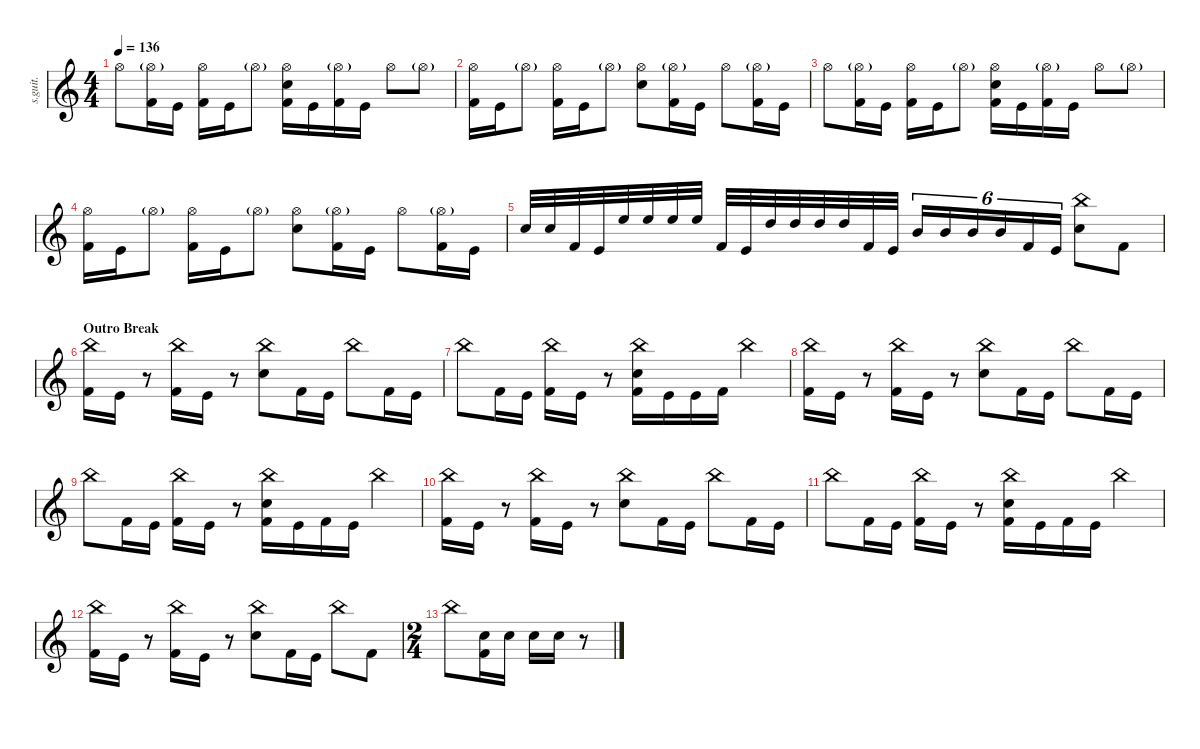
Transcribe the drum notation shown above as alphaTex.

\defaultSystemsLayout 4
\hideDynamics
\bracketExtendMode nobrackets
\track ("Joey Jordison" "s.guit.") {instrument percussion}
\staff {score}
\articulation defaults
\ts (4 4)
\tempo 136
\clef g2
\ks c "Hi-Hat (open)".8{lyrics (0 "") lyrics (1 "") lyrics (2 "") lyrics (3 "") lyrics (4 "") dy fff}
("Kick (hit) 2" "Hi-Hat (open)"{g}).16{lyrics (0 "") lyrics (1 "") lyrics (2 "") lyrics (3 "") lyrics (4 "")} "Kick (hit)".16{lyrics (0 "") lyrics (1 "") lyrics (2 "") lyrics (3 "") lyrics (4 "")} ("Kick (hit) 2" "Hi-Hat (open)").16{lyrics (0 "") lyrics (1 "") lyrics (2 "") lyrics (3 "") lyrics (4 "")} "Kick (hit)".16{lyrics (0 "") lyrics (1 "") lyrics (2 "") lyrics (3 "") lyrics (4 "")} "Hi-Hat (open)"{g}.8{lyrics (0 "") lyrics (1 "") lyrics (2 "") lyrics (3 "") lyrics (4 "")} ("Snare (hit) 2" "Hi-Hat (open)" "Kick (hit) 2").16{lyrics (0 "") lyrics (1 "") lyrics (2 "") lyrics (3 "") lyrics (4 "")} "Kick (hit)".16{lyrics (0 "") lyrics (1 "") lyrics (2 "") lyrics (3 "") lyrics (4 "")} ("Kick (hit) 2" "Hi-Hat (open)"{g}).16{lyrics (0 "") lyrics (1 "") lyrics (2 "") lyrics (3 "") lyrics (4 "")} "Kick (hit)".16{lyrics (0 "") lyrics (1 "") lyrics (2 "") lyrics (3 "") lyrics (4 "")} "Hi-Hat (open)".8{lyrics (0 "") lyrics (1 "") lyrics (2 "") lyrics (3 "") lyrics (4 "")} "Hi-Hat (open)"{g}.8{lyrics (0 "") lyrics (1 "") lyrics (2 "") lyrics (3 "") lyrics (4 "")} |
("Kick (hit) 2" "Hi-Hat (open)").16{lyrics (0 "") lyrics (1 "") lyrics (2 "") lyrics (3 "") lyrics (4 "")} "Kick (hit)".16{lyrics (0 "") lyrics (1 "") lyrics (2 "") lyrics (3 "") lyrics (4 "")} "Hi-Hat (open)"{g}.8{lyrics (0 "") lyrics (1 "") lyrics (2 "") lyrics (3 "") lyrics (4 "")} ("Kick (hit) 2" "Hi-Hat (open)").16{lyrics (0 "") lyrics (1 "") lyrics (2 "") lyrics (3 "") lyrics (4 "")} "Kick (hit)".16{lyrics (0 "") lyrics (1 "") lyrics (2 "") lyrics (3 "") lyrics (4 "")} "Hi-Hat (open)"{g}.8{lyrics (0 "") lyrics (1 "") lyrics (2 "") lyrics (3 "") lyrics (4 "")} ("Hi-Hat (open)" "Snare (hit) 2").8{lyrics (0 "") lyrics (1 "") lyrics (2 "") lyrics (3 "") lyrics (4 "")} ("Kick (hit) 2" "Hi-Hat (open)"{g}).16{lyrics (0 "") lyrics (1 "") lyrics (2 "") lyrics (3 "") lyrics (4 "")} "Kick (hit)".16{lyrics (0 "") lyrics (1 "") lyrics (2 "") lyrics (3 "") lyrics (4 "")} "Hi-Hat (open)".8{lyrics (0 "") lyrics (1 "") lyrics (2 "") lyrics (3 "") lyrics (4 "")} ("Kick (hit) 2" "Hi-Hat (open)"{g}).16{lyrics (0 "") lyrics (1 "") lyrics (2 "") lyrics (3 "") lyrics (4 "")} "Kick (hit)".16{lyrics (0 "") lyrics (1 "") lyrics (2 "") lyrics (3 "") lyrics (4 "")} |
"Hi-Hat (open)".8{lyrics (0 "") lyrics (1 "") lyrics (2 "") lyrics (3 "") lyrics (4 "")} ("Kick (hit) 2" "Hi-Hat (open)"{g}).16{lyrics (0 "") lyrics (1 "") lyrics (2 "") lyrics (3 "") lyrics (4 "")} "Kick (hit)".16{lyrics (0 "") lyrics (1 "") lyrics (2 "") lyrics (3 "") lyrics (4 "")} ("Kick (hit) 2" "Hi-Hat (open)").16{lyrics (0 "") lyrics (1 "") lyrics (2 "") lyrics (3 "") lyrics (4 "")} "Kick (hit)".16{lyrics (0 "") lyrics (1 "") lyrics (2 "") lyrics (3 "") lyrics (4 "")} "Hi-Hat (open)"{g}.8{lyrics (0 "") lyrics (1 "") lyrics (2 "") lyrics (3 "") lyrics (4 "")} ("Snare (hit) 2" "Hi-Hat (open)" "Kick (hit) 2").16{lyrics (0 "") lyrics (1 "") lyrics (2 "") lyrics (3 "") lyrics (4 "")} "Kick (hit)".16{lyrics (0 "") lyrics (1 "") lyrics (2 "") lyrics (3 "") lyrics (4 "")} ("Kick (hit) 2" "Hi-Hat (open)"{g}).16{lyrics (0 "") lyrics (1 "") lyrics (2 "") lyrics (3 "") lyrics (4 "")} "Kick (hit)".16{lyrics (0 "") lyrics (1 "") lyrics (2 "") lyrics (3 "") lyrics (4 "")} "Hi-Hat (open)".8{lyrics (0 "") lyrics (1 "") lyrics (2 "") lyrics (3 "") lyrics (4 "")} "Hi-Hat (open)"{g}.8{lyrics (0 "") lyrics (1 "") lyrics (2 "") lyrics (3 "") lyrics (4 "")} |
("Kick (hit) 2" "Hi-Hat (open)").16{lyrics (0 "") lyrics (1 "") lyrics (2 "") lyrics (3 "") lyrics (4 "")} "Kick (hit)".16{lyrics (0 "") lyrics (1 "") lyrics (2 "") lyrics (3 "") lyrics (4 "")} "Hi-Hat (open)"{g}.8{lyrics (0 "") lyrics (1 "") lyrics (2 "") lyrics (3 "") lyrics (4 "")} ("Kick (hit) 2" "Hi-Hat (open)").16{lyrics (0 "") lyrics (1 "") lyrics (2 "") lyrics (3 "") lyrics (4 "")} "Kick (hit)".16{lyrics (0 "") lyrics (1 "") lyrics (2 "") lyrics (3 "") lyrics (4 "")} "Hi-Hat (open)"{g}.8{lyrics (0 "") lyrics (1 "") lyrics (2 "") lyrics (3 "") lyrics (4 "")} ("Hi-Hat (open)" "Snare (hit) 2").8{lyrics (0 "") lyrics (1 "") lyrics (2 "") lyrics (3 "") lyrics (4 "")} ("Kick (hit) 2" "Hi-Hat (open)"{g}).16{lyrics (0 "") lyrics (1 "") lyrics (2 "") lyrics (3 "") lyrics (4 "")} "Kick (hit)".16{lyrics (0 "") lyrics (1 "") lyrics (2 "") lyrics (3 "") lyrics (4 "")} "Hi-Hat (open)".8{lyrics (0 "") lyrics (1 "") lyrics (2 "") lyrics (3 "") lyrics (4 "")} ("Kick (hit) 2" "Hi-Hat (open)"{g}).16{lyrics (0 "") lyrics (1 "") lyrics (2 "") lyrics (3 "") lyrics (4 "")} "Kick (hit)".16{lyrics (0 "") lyrics (1 "") lyrics (2 "") lyrics (3 "") lyrics (4 "")} |
"Snare (hit) 2".32{lyrics (0 "") lyrics (1 "") lyrics (2 "") lyrics (3 "") lyrics (4 "")} "Snare (hit) 2".32{lyrics (0 "") lyrics (1 "") lyrics (2 "") lyrics (3 "") lyrics (4 "")} "Kick (hit) 2".32{lyrics (0 "") lyrics (1 "") lyrics (2 "") lyrics (3 "") lyrics (4 "")} "Kick (hit)".32{lyrics (0 "") lyrics (1 "") lyrics (2 "") lyrics (3 "") lyrics (4 "")} "High Floor Tom (hit)".32{lyrics (0 "") lyrics (1 "") lyrics (2 "") lyrics (3 "") lyrics (4 "")} "High Floor Tom (hit)".32{lyrics (0 "") lyrics (1 "") lyrics (2 "") lyrics (3 "") lyrics (4 "")} "High Floor Tom (hit)".32{lyrics (0 "") lyrics (1 "") lyrics (2 "") lyrics (3 "") lyrics (4 "")} "High Floor Tom (hit)".32{lyrics (0 "") lyrics (1 "") lyrics (2 "") lyrics (3 "") lyrics (4 "")} "Kick (hit) 2".32{lyrics (0 "") lyrics (1 "") lyrics (2 "") lyrics (3 "") lyrics (4 "")} "Kick (hit)".32{lyrics (0 "") lyrics (1 "") lyrics (2 "") lyrics (3 "") lyrics (4 "")} "High Tom (hit)".32{lyrics (0 "") lyrics (1 "") lyrics (2 "") lyrics (3 "") lyrics (4 "")} "High Tom (hit)".32{lyrics (0 "") lyrics (1 "") lyrics (2 "") lyrics (3 "") lyrics (4 "")} "High Tom (hit)".32{lyrics (0 "") lyrics (1 "") lyrics (2 "") lyrics (3 "") lyrics (4 "")} "High Tom (hit)".32{lyrics (0 "") lyrics (1 "") lyrics (2 "") lyrics (3 "") lyrics (4 "")} "Kick (hit) 2".32{lyrics (0 "") lyrics (1 "") lyrics (2 "") lyrics (3 "") lyrics (4 "")} "Kick (hit)".32{lyrics (0 "") lyrics (1 "") lyrics (2 "") lyrics (3 "") lyrics (4 "")} "Mid Tom (hit)".16{tu (6 4) lyrics (0 "") lyrics (1 "") lyrics (2 "") lyrics (3 "") lyrics (4 "")} "Mid Tom (hit)".16{tu (6 4) lyrics (0 "") lyrics (1 "") lyrics (2 "") lyrics (3 "") lyrics (4 "")} "Mid Tom (hit)".16{tu (6 4) lyrics (0 "") lyrics (1 "") lyrics (2 "") lyrics (3 "") lyrics (4 "")} "Mid Tom (hit)".16{tu (6 4) lyrics (0 "") lyrics (1 "") lyrics (2 "") lyrics (3 "") lyrics (4 "")} "Kick (hit) 2".16{tu (6 4) lyrics (0 "") lyrics (1 "") lyrics (2 "") lyrics (3 "") lyrics (4 "")} "Kick (hit)".16{tu (6 4) lyrics (0 "") lyrics (1 "") lyrics (2 "") lyrics (3 "") lyrics (4 "")} ("Snare (hit) 2" "China (hit)").8{lyrics (0 "") lyrics (1 "") lyrics (2 "") lyrics (3 "") lyrics (4 "")} "Kick (hit) 2".8{lyrics (0 "") lyrics (1 "") lyrics (2 "") lyrics (3 "") lyrics (4 "")} |
\section ("" "Outro Break")
("Kick (hit) 2" "China (hit)").16{lyrics (0 "") lyrics (1 "") lyrics (2 "") lyrics (3 "") lyrics (4 "")} "Kick (hit)".16{lyrics (0 "") lyrics (1 "") lyrics (2 "") lyrics (3 "") lyrics (4 "")} r.8 ("Kick (hit) 2" "China (hit)").16{lyrics (0 "") lyrics (1 "") lyrics (2 "") lyrics (3 "") lyrics (4 "")} "Kick (hit)".16{lyrics (0 "") lyrics (1 "") lyrics (2 "") lyrics (3 "") lyrics (4 "")} r.8 ("Snare (hit) 2" "China (hit)").8{lyrics (0 "") lyrics (1 "") lyrics (2 "") lyrics (3 "") lyrics (4 "")} "Kick (hit) 2".16{lyrics (0 "") lyrics (1 "") lyrics (2 "") lyrics (3 "") lyrics (4 "")} "Kick (hit)".16{lyrics (0 "") lyrics (1 "") lyrics (2 "") lyrics (3 "") lyrics (4 "")} "China (hit)".8{lyrics (0 "") lyrics (1 "") lyrics (2 "") lyrics (3 "") lyrics (4 "")} "Kick (hit) 2".16{lyrics (0 "") lyrics (1 "") lyrics (2 "") lyrics (3 "") lyrics (4 "")} "Kick (hit)".16{lyrics (0 "") lyrics (1 "") lyrics (2 "") lyrics (3 "") lyrics (4 "")} |
"China (hit)".8{lyrics (0 "") lyrics (1 "") lyrics (2 "") lyrics (3 "") lyrics (4 "")} "Kick (hit) 2".16{lyrics (0 "") lyrics (1 "") lyrics (2 "") lyrics (3 "") lyrics (4 "")} "Kick (hit)".16{lyrics (0 "") lyrics (1 "") lyrics (2 "") lyrics (3 "") lyrics (4 "")} ("Kick (hit) 2" "China (hit)").16{lyrics (0 "") lyrics (1 "") lyrics (2 "") lyrics (3 "") lyrics (4 "")} "Kick (hit)".16{lyrics (0 "") lyrics (1 "") lyrics (2 "") lyrics (3 "") lyrics (4 "")} r.8 ("Snare (hit) 2" "Kick (hit) 2" "China (hit)").16{lyrics (0 "") lyrics (1 "") lyrics (2 "") lyrics (3 "") lyrics (4 "")} "Kick (hit)".16{lyrics (0 "") lyrics (1 "") lyrics (2 "") lyrics (3 "") lyrics (4 "")} "Kick (hit)".16{lyrics (0 "") lyrics (1 "") lyrics (2 "") lyrics (3 "") lyrics (4 "")} "Kick (hit) 2".16{lyrics (0 "") lyrics (1 "") lyrics (2 "") lyrics (3 "") lyrics (4 "")} "China (hit)".4{lyrics (0 "") lyrics (1 "") lyrics (2 "") lyrics (3 "") lyrics (4 "")} |
("Kick (hit) 2" "China (hit)").16{lyrics (0 "") lyrics (1 "") lyrics (2 "") lyrics (3 "") lyrics (4 "")} "Kick (hit)".16{lyrics (0 "") lyrics (1 "") lyrics (2 "") lyrics (3 "") lyrics (4 "")} r.8 ("Kick (hit) 2" "China (hit)").16{lyrics (0 "") lyrics (1 "") lyrics (2 "") lyrics (3 "") lyrics (4 "")} "Kick (hit)".16{lyrics (0 "") lyrics (1 "") lyrics (2 "") lyrics (3 "") lyrics (4 "")} r.8 ("Snare (hit) 2" "China (hit)").8{lyrics (0 "") lyrics (1 "") lyrics (2 "") lyrics (3 "") lyrics (4 "")} "Kick (hit) 2".16{lyrics (0 "") lyrics (1 "") lyrics (2 "") lyrics (3 "") lyrics (4 "")} "Kick (hit)".16{lyrics (0 "") lyrics (1 "") lyrics (2 "") lyrics (3 "") lyrics (4 "")} "China (hit)".8{lyrics (0 "") lyrics (1 "") lyrics (2 "") lyrics (3 "") lyrics (4 "")} "Kick (hit) 2".16{lyrics (0 "") lyrics (1 "") lyrics (2 "") lyrics (3 "") lyrics (4 "")} "Kick (hit)".16{lyrics (0 "") lyrics (1 "") lyrics (2 "") lyrics (3 "") lyrics (4 "")} |
"China (hit)".8{lyrics (0 "") lyrics (1 "") lyrics (2 "") lyrics (3 "") lyrics (4 "")} "Kick (hit) 2".16{lyrics (0 "") lyrics (1 "") lyrics (2 "") lyrics (3 "") lyrics (4 "")} "Kick (hit)".16{lyrics (0 "") lyrics (1 "") lyrics (2 "") lyrics (3 "") lyrics (4 "")} ("Kick (hit) 2" "China (hit)").16{lyrics (0 "") lyrics (1 "") lyrics (2 "") lyrics (3 "") lyrics (4 "")} "Kick (hit)".16{lyrics (0 "") lyrics (1 "") lyrics (2 "") lyrics (3 "") lyrics (4 "")} r.8 ("Snare (hit) 2" "Kick (hit) 2" "China (hit)").16{lyrics (0 "") lyrics (1 "") lyrics (2 "") lyrics (3 "") lyrics (4 "")} "Kick (hit)".16{lyrics (0 "") lyrics (1 "") lyrics (2 "") lyrics (3 "") lyrics (4 "")} "Kick (hit) 2".16{lyrics (0 "") lyrics (1 "") lyrics (2 "") lyrics (3 "") lyrics (4 "")} "Kick (hit)".16{lyrics (0 "") lyrics (1 "") lyrics (2 "") lyrics (3 "") lyrics (4 "")} "China (hit)".4{lyrics (0 "") lyrics (1 "") lyrics (2 "") lyrics (3 "") lyrics (4 "")} |
("Kick (hit) 2" "China (hit)").16{lyrics (0 "") lyrics (1 "") lyrics (2 "") lyrics (3 "") lyrics (4 "")} "Kick (hit)".16{lyrics (0 "") lyrics (1 "") lyrics (2 "") lyrics (3 "") lyrics (4 "")} r.8 ("Kick (hit) 2" "China (hit)").16{lyrics (0 "") lyrics (1 "") lyrics (2 "") lyrics (3 "") lyrics (4 "")} "Kick (hit)".16{lyrics (0 "") lyrics (1 "") lyrics (2 "") lyrics (3 "") lyrics (4 "")} r.8 ("Snare (hit) 2" "China (hit)").8{lyrics (0 "") lyrics (1 "") lyrics (2 "") lyrics (3 "") lyrics (4 "")} "Kick (hit) 2".16{lyrics (0 "") lyrics (1 "") lyrics (2 "") lyrics (3 "") lyrics (4 "")} "Kick (hit)".16{lyrics (0 "") lyrics (1 "") lyrics (2 "") lyrics (3 "") lyrics (4 "")} "China (hit)".8{lyrics (0 "") lyrics (1 "") lyrics (2 "") lyrics (3 "") lyrics (4 "")} "Kick (hit) 2".16{lyrics (0 "") lyrics (1 "") lyrics (2 "") lyrics (3 "") lyrics (4 "")} "Kick (hit)".16{lyrics (0 "") lyrics (1 "") lyrics (2 "") lyrics (3 "") lyrics (4 "")} |
"China (hit)".8{lyrics (0 "") lyrics (1 "") lyrics (2 "") lyrics (3 "") lyrics (4 "")} "Kick (hit) 2".16{lyrics (0 "") lyrics (1 "") lyrics (2 "") lyrics (3 "") lyrics (4 "")} "Kick (hit)".16{lyrics (0 "") lyrics (1 "") lyrics (2 "") lyrics (3 "") lyrics (4 "")} ("Kick (hit) 2" "China (hit)").16{lyrics (0 "") lyrics (1 "") lyrics (2 "") lyrics (3 "") lyrics (4 "")} "Kick (hit)".16{lyrics (0 "") lyrics (1 "") lyrics (2 "") lyrics (3 "") lyrics (4 "")} r.8 ("Snare (hit) 2" "Kick (hit) 2" "China (hit)").16{lyrics (0 "") lyrics (1 "") lyrics (2 "") lyrics (3 "") lyrics (4 "")} "Kick (hit)".16{lyrics (0 "") lyrics (1 "") lyrics (2 "") lyrics (3 "") lyrics (4 "")} "Kick (hit) 2".16{lyrics (0 "") lyrics (1 "") lyrics (2 "") lyrics (3 "") lyrics (4 "")} "Kick (hit)".16{lyrics (0 "") lyrics (1 "") lyrics (2 "") lyrics (3 "") lyrics (4 "")} "China (hit)".4{lyrics (0 "") lyrics (1 "") lyrics (2 "") lyrics (3 "") lyrics (4 "")} |
("Kick (hit) 2" "China (hit)").16{lyrics (0 "") lyrics (1 "") lyrics (2 "") lyrics (3 "") lyrics (4 "")} "Kick (hit)".16{lyrics (0 "") lyrics (1 "") lyrics (2 "") lyrics (3 "") lyrics (4 "")} r.8 ("Kick (hit) 2" "China (hit)").16{lyrics (0 "") lyrics (1 "") lyrics (2 "") lyrics (3 "") lyrics (4 "")} "Kick (hit)".16{lyrics (0 "") lyrics (1 "") lyrics (2 "") lyrics (3 "") lyrics (4 "")} r.8 ("Snare (hit) 2" "China (hit)").8{lyrics (0 "") lyrics (1 "") lyrics (2 "") lyrics (3 "") lyrics (4 "")} "Kick (hit) 2".16{lyrics (0 "") lyrics (1 "") lyrics (2 "") lyrics (3 "") lyrics (4 "")} "Kick (hit)".16{lyrics (0 "") lyrics (1 "") lyrics (2 "") lyrics (3 "") lyrics (4 "")} "China (hit)".8{lyrics (0 "") lyrics (1 "") lyrics (2 "") lyrics (3 "") lyrics (4 "")} "Kick (hit) 2".8{lyrics (0 "") lyrics (1 "") lyrics (2 "") lyrics (3 "") lyrics (4 "")} |
\ts (2 4)
\beaming (8 2 2 2 2)
"China (hit)".8{lyrics (0 "") lyrics (1 "") lyrics (2 "") lyrics (3 "") lyrics (4 "")} ("Kick (hit) 2" "Snare (hit) 2").16{lyrics (0 "") lyrics (1 "") lyrics (2 "") lyrics (3 "") lyrics (4 "")} "Snare (hit) 2".16{lyrics (0 "") lyrics (1 "") lyrics (2 "") lyrics (3 "") lyrics (4 "")} "Snare (hit) 2".16{lyrics (0 "") lyrics (1 "") lyrics (2 "") lyrics (3 "") lyrics (4 "")} "Snare (hit) 2".16{lyrics (0 "") lyrics (1 "") lyrics (2 "") lyrics (3 "") lyrics (4 "")} r.8
